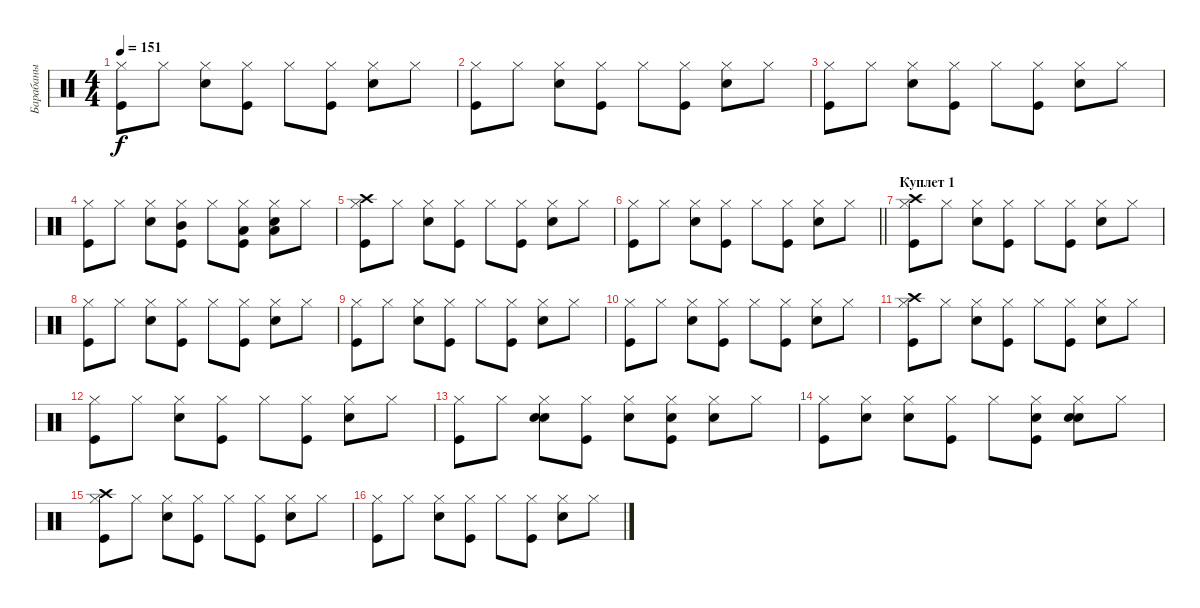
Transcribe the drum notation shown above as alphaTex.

\track ("Барабаны" "Барабаны") {instrument percussion}
\staff {score}
\articulation defaults
\ts (4 4)
\tempo 151
\clef neutral
\ks c
("Kick (hit)" "Hi-Hat (closed)").8{dy f} "Hi-Hat (closed)".8 ("Snare (hit) 2" "Hi-Hat (closed)").8 ("Kick (hit)" "Hi-Hat (closed)").8 "Hi-Hat (closed)".8 ("Kick (hit)" "Hi-Hat (closed)").8 ("Snare (hit) 2" "Hi-Hat (closed)").8 "Hi-Hat (closed)".8 |
("Kick (hit)" "Hi-Hat (closed)").8 "Hi-Hat (closed)".8 ("Snare (hit) 2" "Hi-Hat (closed)").8 ("Kick (hit)" "Hi-Hat (closed)").8 "Hi-Hat (closed)".8 ("Kick (hit)" "Hi-Hat (closed)").8 ("Snare (hit) 2" "Hi-Hat (closed)").8 "Hi-Hat (closed)".8 |
("Kick (hit)" "Hi-Hat (closed)").8 "Hi-Hat (closed)".8 ("Snare (hit) 2" "Hi-Hat (closed)").8 ("Kick (hit)" "Hi-Hat (closed)").8 "Hi-Hat (closed)".8 ("Kick (hit)" "Hi-Hat (closed)").8 ("Snare (hit) 2" "Hi-Hat (closed)").8 "Hi-Hat (closed)".8 |
("Kick (hit)" "Hi-Hat (closed)").8 "Hi-Hat (closed)".8 ("Snare (hit) 2" "Hi-Hat (closed)").8 ("Kick (hit)" "Hi-Hat (closed)" "Mid Tom (hit)").8 "Hi-Hat (closed)".8 ("Kick (hit)" "Hi-Hat (closed)" "Low Tom (hit)").8 ("Snare (hit) 2" "Hi-Hat (closed)" "Low Tom (hit)").8 "Hi-Hat (closed)".8 |
("Kick (hit)" "Hi-Hat (closed)" "Crash high (hit)").8 "Hi-Hat (closed)".8 ("Snare (hit) 2" "Hi-Hat (closed)").8 ("Kick (hit)" "Hi-Hat (closed)").8 "Hi-Hat (closed)".8 ("Kick (hit)" "Hi-Hat (closed)").8 ("Snare (hit) 2" "Hi-Hat (closed)").8 "Hi-Hat (closed)".8 |
\barLineRight lightlight
("Kick (hit)" "Hi-Hat (closed)").8 "Hi-Hat (closed)".8 ("Snare (hit) 2" "Hi-Hat (closed)").8 ("Kick (hit)" "Hi-Hat (closed)").8 "Hi-Hat (closed)".8 ("Kick (hit)" "Hi-Hat (closed)").8 ("Snare (hit) 2" "Hi-Hat (closed)").8 "Hi-Hat (closed)".8 |
\section ("" "Куплет 1")
("Kick (hit)" "Hi-Hat (closed)" "Crash high (hit)").8 "Hi-Hat (closed)".8 ("Snare (hit) 2" "Hi-Hat (closed)").8 ("Kick (hit)" "Hi-Hat (closed)").8 "Hi-Hat (closed)".8 ("Kick (hit)" "Hi-Hat (closed)").8 ("Snare (hit) 2" "Hi-Hat (closed)").8 "Hi-Hat (closed)".8 |
("Kick (hit)" "Hi-Hat (closed)").8 "Hi-Hat (closed)".8 ("Snare (hit) 2" "Hi-Hat (closed)").8 ("Kick (hit)" "Hi-Hat (closed)").8 "Hi-Hat (closed)".8 ("Kick (hit)" "Hi-Hat (closed)").8 ("Snare (hit) 2" "Hi-Hat (closed)").8 "Hi-Hat (closed)".8 |
("Kick (hit)" "Hi-Hat (closed)").8 "Hi-Hat (closed)".8 ("Snare (hit) 2" "Hi-Hat (closed)").8 ("Kick (hit)" "Hi-Hat (closed)").8 "Hi-Hat (closed)".8 ("Kick (hit)" "Hi-Hat (closed)").8 ("Snare (hit) 2" "Hi-Hat (closed)").8 "Hi-Hat (closed)".8 |
("Kick (hit)" "Hi-Hat (closed)").8 "Hi-Hat (closed)".8 ("Snare (hit) 2" "Hi-Hat (closed)").8 ("Kick (hit)" "Hi-Hat (closed)").8 "Hi-Hat (closed)".8 ("Kick (hit)" "Hi-Hat (closed)").8 ("Snare (hit) 2" "Hi-Hat (closed)").8 "Hi-Hat (closed)".8 |
("Kick (hit)" "Hi-Hat (closed)" "Crash high (hit)").8 "Hi-Hat (closed)".8 ("Snare (hit) 2" "Hi-Hat (closed)").8 ("Kick (hit)" "Hi-Hat (closed)").8 "Hi-Hat (closed)".8 ("Kick (hit)" "Hi-Hat (closed)").8 ("Snare (hit) 2" "Hi-Hat (closed)").8 "Hi-Hat (closed)".8 |
("Kick (hit)" "Hi-Hat (closed)").8 "Hi-Hat (closed)".8 ("Snare (hit) 2" "Hi-Hat (closed)").8 ("Kick (hit)" "Hi-Hat (closed)").8 "Hi-Hat (closed)".8 ("Kick (hit)" "Hi-Hat (closed)").8 ("Snare (hit) 2" "Hi-Hat (closed)").8 "Hi-Hat (closed)".8 |
("Kick (hit)" "Hi-Hat (closed)").8 "Hi-Hat (closed)".8 ("Snare (hit) 2" "Hi-Hat (closed)" "Hand Clap (hit)").8 ("Kick (hit)" "Hi-Hat (closed)").8 ("Hi-Hat (closed)" "Hand Clap (hit)").8 ("Kick (hit)" "Hi-Hat (closed)" "Hand Clap (hit)").8 ("Snare (hit) 2" "Hi-Hat (closed)").8 "Hi-Hat (closed)".8 |
("Kick (hit)" "Hi-Hat (closed)").8 ("Hi-Hat (closed)" "Hand Clap (hit)").8 ("Snare (hit) 2" "Hi-Hat (closed)").8 ("Kick (hit)" "Hi-Hat (closed)").8 "Hi-Hat (closed)".8 ("Kick (hit)" "Hi-Hat (closed)" "Hand Clap (hit)").8 ("Snare (hit) 2" "Hi-Hat (closed)" "Hand Clap (hit)").8 "Hi-Hat (closed)".8 |
("Kick (hit)" "Hi-Hat (closed)" "Crash high (hit)").8 "Hi-Hat (closed)".8 ("Snare (hit) 2" "Hi-Hat (closed)").8 ("Kick (hit)" "Hi-Hat (closed)").8 "Hi-Hat (closed)".8 ("Kick (hit)" "Hi-Hat (closed)").8 ("Snare (hit) 2" "Hi-Hat (closed)").8 "Hi-Hat (closed)".8 |
("Kick (hit)" "Hi-Hat (closed)").8 "Hi-Hat (closed)".8 ("Snare (hit) 2" "Hi-Hat (closed)").8 ("Kick (hit)" "Hi-Hat (closed)").8 "Hi-Hat (closed)".8 ("Kick (hit)" "Hi-Hat (closed)").8 ("Snare (hit) 2" "Hi-Hat (closed)").8 "Hi-Hat (closed)".8
